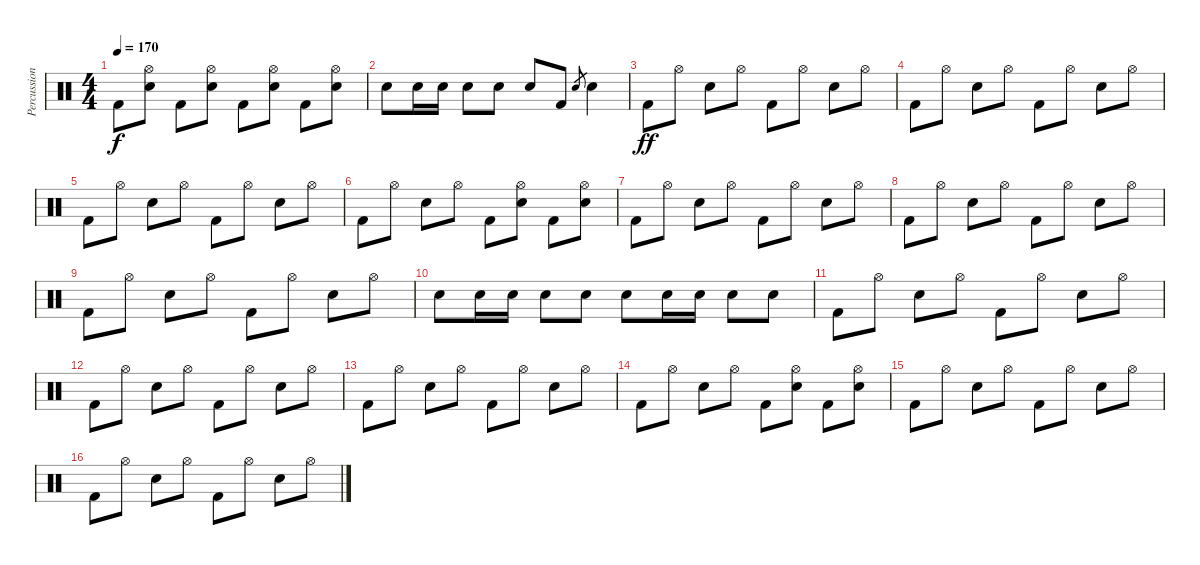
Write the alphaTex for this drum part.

\track ("Percussion" "Percussion") {instrument percussion}
\staff {score}
\articulation defaults
\ts (4 4)
\tempo 170
\clef neutral
\ks c "Kick (hit) 2".8{dy f}
("Hi-Hat (open)" "Electric Snare (hit)").8 "Kick (hit) 2".8 ("Hi-Hat (open)" "Electric Snare (hit)").8 "Kick (hit) 2".8 ("Hi-Hat (open)" "Electric Snare (hit)").8 "Kick (hit) 2".8 ("Hi-Hat (open)" "Electric Snare (hit)").8 |
"Electric Snare (hit)".8 "Electric Snare (hit)".16 "Electric Snare (hit)".16 "Electric Snare (hit)".8 "Electric Snare (hit)".8 "Electric Snare (hit)".8 "Kick (hit) 2".8 "Electric Snare (hit)".8{gr} "Electric Snare (hit)".4 |
"Kick (hit) 2".8{dy ff} "Hi-Hat (open)".8 "Electric Snare (hit)".8 "Hi-Hat (open)".8 "Kick (hit) 2".8 "Hi-Hat (open)".8 "Electric Snare (hit)".8 "Hi-Hat (open)".8 |
"Kick (hit) 2".8 "Hi-Hat (open)".8 "Electric Snare (hit)".8 "Hi-Hat (open)".8 "Kick (hit) 2".8 "Hi-Hat (open)".8 "Electric Snare (hit)".8 "Hi-Hat (open)".8 |
"Kick (hit) 2".8 "Hi-Hat (open)".8 "Electric Snare (hit)".8 "Hi-Hat (open)".8 "Kick (hit) 2".8 "Hi-Hat (open)".8 "Electric Snare (hit)".8 "Hi-Hat (open)".8 |
"Kick (hit) 2".8 "Hi-Hat (open)".8 "Electric Snare (hit)".8 "Hi-Hat (open)".8 "Kick (hit) 2".8 ("Hi-Hat (open)" "Electric Snare (hit)").8 "Kick (hit) 2".8 ("Hi-Hat (open)" "Electric Snare (hit)").8 |
"Kick (hit) 2".8 "Hi-Hat (open)".8 "Electric Snare (hit)".8 "Hi-Hat (open)".8 "Kick (hit) 2".8 "Hi-Hat (open)".8 "Electric Snare (hit)".8 "Hi-Hat (open)".8 |
"Kick (hit) 2".8 "Hi-Hat (open)".8 "Electric Snare (hit)".8 "Hi-Hat (open)".8 "Kick (hit) 2".8 "Hi-Hat (open)".8 "Electric Snare (hit)".8 "Hi-Hat (open)".8 |
"Kick (hit) 2".8 "Hi-Hat (open)".8 "Electric Snare (hit)".8 "Hi-Hat (open)".8 "Kick (hit) 2".8 "Hi-Hat (open)".8 "Electric Snare (hit)".8 "Hi-Hat (open)".8 |
"Electric Snare (hit)".8 "Electric Snare (hit)".16 "Electric Snare (hit)".16 "Electric Snare (hit)".8 "Electric Snare (hit)".8 "Electric Snare (hit)".8 "Electric Snare (hit)".16 "Electric Snare (hit)".16 "Electric Snare (hit)".8 "Electric Snare (hit)".8 |
"Kick (hit) 2".8 "Hi-Hat (open)".8 "Electric Snare (hit)".8 "Hi-Hat (open)".8 "Kick (hit) 2".8 "Hi-Hat (open)".8 "Electric Snare (hit)".8 "Hi-Hat (open)".8 |
"Kick (hit) 2".8 "Hi-Hat (open)".8 "Electric Snare (hit)".8 "Hi-Hat (open)".8 "Kick (hit) 2".8 "Hi-Hat (open)".8 "Electric Snare (hit)".8 "Hi-Hat (open)".8 |
"Kick (hit) 2".8 "Hi-Hat (open)".8 "Electric Snare (hit)".8 "Hi-Hat (open)".8 "Kick (hit) 2".8 "Hi-Hat (open)".8 "Electric Snare (hit)".8 "Hi-Hat (open)".8 |
"Kick (hit) 2".8 "Hi-Hat (open)".8 "Electric Snare (hit)".8 "Hi-Hat (open)".8 "Kick (hit) 2".8 ("Hi-Hat (open)" "Electric Snare (hit)").8 "Kick (hit) 2".8 ("Hi-Hat (open)" "Electric Snare (hit)").8 |
"Kick (hit) 2".8 "Hi-Hat (open)".8 "Electric Snare (hit)".8 "Hi-Hat (open)".8 "Kick (hit) 2".8 "Hi-Hat (open)".8 "Electric Snare (hit)".8 "Hi-Hat (open)".8 |
"Kick (hit) 2".8 "Hi-Hat (open)".8 "Electric Snare (hit)".8 "Hi-Hat (open)".8 "Kick (hit) 2".8 "Hi-Hat (open)".8 "Electric Snare (hit)".8 "Hi-Hat (open)".8
